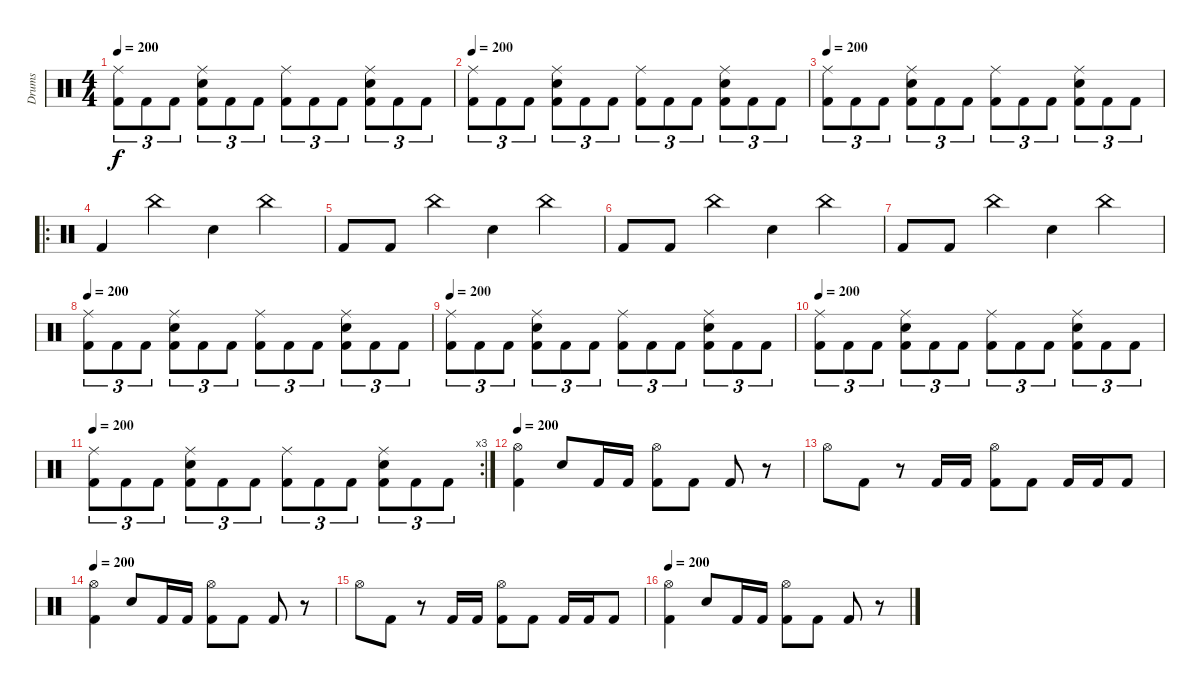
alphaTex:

\track ("Drums" "Drums") {instrument percussion}
\staff {score}
\articulation defaults
\ts (4 4)
\tempo 200
\clef neutral
\ks c
("Ride (middle)" "Kick (hit) 2").8{tu (3 2) dy f} "Kick (hit) 2".8{tu (3 2)} "Kick (hit) 2".8{tu (3 2)} ("Ride (middle)" "Electric Snare (hit)" "Kick (hit) 2").8{tu (3 2)} "Kick (hit) 2".8{tu (3 2)} "Kick (hit) 2".8{tu (3 2)} ("Ride (middle)" "Kick (hit) 2").8{tu (3 2)} "Kick (hit) 2".8{tu (3 2)} "Kick (hit) 2".8{tu (3 2)} ("Ride (middle)" "Electric Snare (hit)" "Kick (hit) 2").8{tu (3 2)} "Kick (hit) 2".8{tu (3 2)} "Kick (hit) 2".8{tu (3 2)} |
\tempo 200
("Ride (middle)" "Kick (hit) 2").8{tu (3 2)} "Kick (hit) 2".8{tu (3 2)} "Kick (hit) 2".8{tu (3 2)} ("Ride (middle)" "Electric Snare (hit)" "Kick (hit) 2").8{tu (3 2)} "Kick (hit) 2".8{tu (3 2)} "Kick (hit) 2".8{tu (3 2)} ("Ride (middle)" "Kick (hit) 2").8{tu (3 2)} "Kick (hit) 2".8{tu (3 2)} "Kick (hit) 2".8{tu (3 2)} ("Ride (middle)" "Electric Snare (hit)" "Kick (hit) 2").8{tu (3 2)} "Kick (hit) 2".8{tu (3 2)} "Kick (hit) 2".8{tu (3 2)} |
\tempo 200
("Ride (middle)" "Kick (hit) 2").8{tu (3 2)} "Kick (hit) 2".8{tu (3 2)} "Kick (hit) 2".8{tu (3 2)} ("Ride (middle)" "Electric Snare (hit)" "Kick (hit) 2").8{tu (3 2)} "Kick (hit) 2".8{tu (3 2)} "Kick (hit) 2".8{tu (3 2)} ("Ride (middle)" "Kick (hit) 2").8{tu (3 2)} "Kick (hit) 2".8{tu (3 2)} "Kick (hit) 2".8{tu (3 2)} ("Ride (middle)" "Electric Snare (hit)" "Kick (hit) 2").8{tu (3 2)} "Kick (hit) 2".8{tu (3 2)} "Kick (hit) 2".8{tu (3 2)} |
\ro "Kick (hit) 2".4 "China (hit)".4 "Electric Snare (hit)".4 "China (hit)".4
|
"Kick (hit) 2".8 "Kick (hit) 2".8 "China (hit)".4 "Electric Snare (hit)".4 "China (hit)".4 |
"Kick (hit) 2".8 "Kick (hit) 2".8 "China (hit)".4 "Electric Snare (hit)".4 "China (hit)".4 |
"Kick (hit) 2".8 "Kick (hit) 2".8 "China (hit)".4 "Electric Snare (hit)".4 "China (hit)".4 |
\tempo 200
("Ride (middle)" "Kick (hit) 2").8{tu (3 2)} "Kick (hit) 2".8{tu (3 2)} "Kick (hit) 2".8{tu (3 2)} ("Ride (middle)" "Electric Snare (hit)" "Kick (hit) 2").8{tu (3 2)} "Kick (hit) 2".8{tu (3 2)} "Kick (hit) 2".8{tu (3 2)} ("Ride (middle)" "Kick (hit) 2").8{tu (3 2)} "Kick (hit) 2".8{tu (3 2)} "Kick (hit) 2".8{tu (3 2)} ("Ride (middle)" "Electric Snare (hit)" "Kick (hit) 2").8{tu (3 2)} "Kick (hit) 2".8{tu (3 2)} "Kick (hit) 2".8{tu (3 2)} |
\tempo 200
("Ride (middle)" "Kick (hit) 2").8{tu (3 2)} "Kick (hit) 2".8{tu (3 2)} "Kick (hit) 2".8{tu (3 2)} ("Ride (middle)" "Electric Snare (hit)" "Kick (hit) 2").8{tu (3 2)} "Kick (hit) 2".8{tu (3 2)} "Kick (hit) 2".8{tu (3 2)} ("Ride (middle)" "Kick (hit) 2").8{tu (3 2)} "Kick (hit) 2".8{tu (3 2)} "Kick (hit) 2".8{tu (3 2)} ("Ride (middle)" "Electric Snare (hit)" "Kick (hit) 2").8{tu (3 2)} "Kick (hit) 2".8{tu (3 2)} "Kick (hit) 2".8{tu (3 2)} |
\tempo 200
("Ride (middle)" "Kick (hit) 2").8{tu (3 2)} "Kick (hit) 2".8{tu (3 2)} "Kick (hit) 2".8{tu (3 2)} ("Ride (middle)" "Electric Snare (hit)" "Kick (hit) 2").8{tu (3 2)} "Kick (hit) 2".8{tu (3 2)} "Kick (hit) 2".8{tu (3 2)} ("Ride (middle)" "Kick (hit) 2").8{tu (3 2)} "Kick (hit) 2".8{tu (3 2)} "Kick (hit) 2".8{tu (3 2)} ("Ride (middle)" "Electric Snare (hit)" "Kick (hit) 2").8{tu (3 2)} "Kick (hit) 2".8{tu (3 2)} "Kick (hit) 2".8{tu (3 2)} |
\rc 3
\tempo 200
("Ride (middle)" "Kick (hit) 2").8{tu (3 2)} "Kick (hit) 2".8{tu (3 2)} "Kick (hit) 2".8{tu (3 2)} ("Ride (middle)" "Electric Snare (hit)" "Kick (hit) 2").8{tu (3 2)} "Kick (hit) 2".8{tu (3 2)} "Kick (hit) 2".8{tu (3 2)} ("Ride (middle)" "Kick (hit) 2").8{tu (3 2)} "Kick (hit) 2".8{tu (3 2)} "Kick (hit) 2".8{tu (3 2)} ("Ride (middle)" "Electric Snare (hit)" "Kick (hit) 2").8{tu (3 2)} "Kick (hit) 2".8{tu (3 2)} "Kick (hit) 2".8{tu (3 2)} |
\tempo 200
("Hi-Hat (open)" "Kick (hit) 2").4 "Electric Snare (hit)".8 "Kick (hit) 2".16 "Kick (hit) 2".16 ("Hi-Hat (open)" "Kick (hit) 2").8 "Kick (hit) 2".8 "Kick (hit) 2".8 r.8 |
"Hi-Hat (open)".8 "Kick (hit) 2".8 r.8 "Kick (hit) 2".16 "Kick (hit) 2".16 ("Hi-Hat (open)" "Kick (hit) 2").8 "Kick (hit) 2".8 "Kick (hit) 2".16 "Kick (hit) 2".16 "Kick (hit) 2".8 |
\tempo 200
("Hi-Hat (open)" "Kick (hit) 2").4 "Electric Snare (hit)".8 "Kick (hit) 2".16 "Kick (hit) 2".16 ("Hi-Hat (open)" "Kick (hit) 2").8 "Kick (hit) 2".8 "Kick (hit) 2".8 r.8 |
"Hi-Hat (open)".8 "Kick (hit) 2".8 r.8 "Kick (hit) 2".16 "Kick (hit) 2".16 ("Hi-Hat (open)" "Kick (hit) 2").8 "Kick (hit) 2".8 "Kick (hit) 2".16 "Kick (hit) 2".16 "Kick (hit) 2".8 |
\tempo 200
("Hi-Hat (open)" "Kick (hit) 2").4 "Electric Snare (hit)".8 "Kick (hit) 2".16 "Kick (hit) 2".16 ("Hi-Hat (open)" "Kick (hit) 2").8 "Kick (hit) 2".8 "Kick (hit) 2".8 r.8
